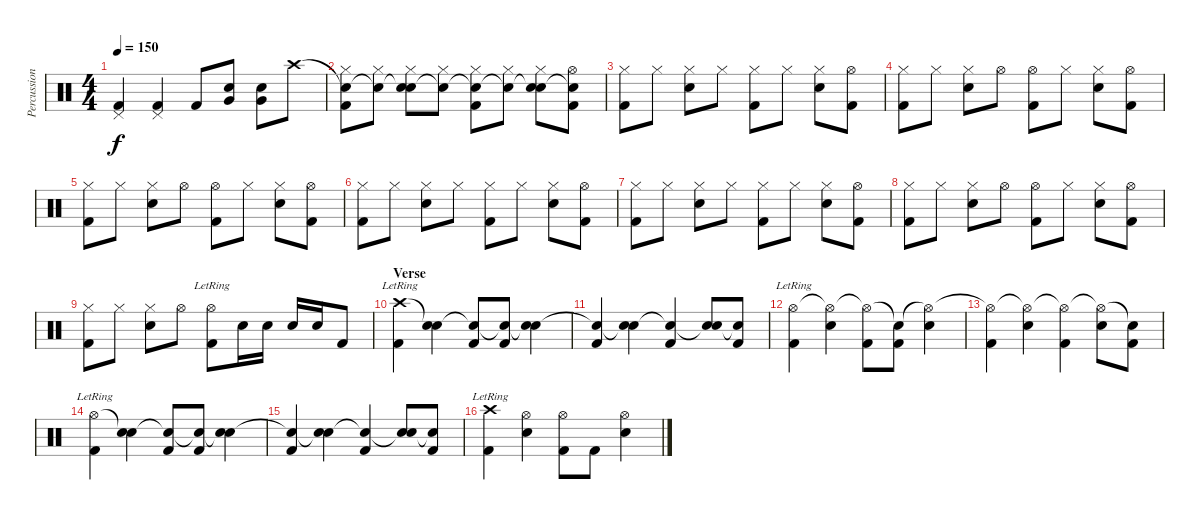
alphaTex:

\track ("Percussion" "Percussion") {instrument percussion}
\staff {score}
\articulation defaults
\ts (4 4)
\tempo 150
\clef neutral
\ks c
("Pedal Hi-Hat (hit)" "Kick (hit) 2").4{dy f} ("Pedal Hi-Hat (hit)" "Kick (hit) 2").4 "Kick (hit) 2".8 ("Very Low Tom (hit)" "Snare (hit) 2").8 ("Very Low Tom (hit)" "Snare (hit) 2").8 "Crash high (hit)".8 |
("Snare (hit)"{t} "Hi-Hat (closed)" "Kick (hit) 2").8 ("Snare (hit)"{t} "Hi-Hat (closed)").8 ("Snare (hit)"{t} "Hi-Hat (closed)" "Snare (hit) 2").8 ("Snare (hit)"{t} "Hi-Hat (closed)").8 ("Snare (hit)"{t} "Hi-Hat (closed)" "Kick (hit) 2").8 ("Snare (hit)"{t} "Hi-Hat (closed)").8 ("Snare (hit)"{t} "Hi-Hat (closed)" "Snare (hit) 2").8 ("Snare (hit)"{t} "Hi-Hat (open)" "Kick (hit) 2").8 |
("Hi-Hat (closed)" "Kick (hit) 2").8 "Hi-Hat (closed)".8 ("Hi-Hat (closed)" "Snare (hit) 2").8 "Hi-Hat (closed)".8 ("Hi-Hat (closed)" "Kick (hit) 2").8 "Hi-Hat (closed)".8 ("Hi-Hat (closed)" "Snare (hit) 2").8 ("Hi-Hat (open)" "Kick (hit) 2").8 |
("Hi-Hat (closed)" "Kick (hit) 2").8 "Hi-Hat (closed)".8 ("Hi-Hat (closed)" "Snare (hit) 2").8 "Hi-Hat (open)".8 ("Hi-Hat (open)" "Kick (hit) 2").8 "Hi-Hat (closed)".8 ("Hi-Hat (closed)" "Snare (hit) 2").8 ("Hi-Hat (open)" "Kick (hit) 2").8 |
("Hi-Hat (closed)" "Kick (hit) 2").8 "Hi-Hat (closed)".8 ("Hi-Hat (closed)" "Snare (hit) 2").8 "Hi-Hat (open)".8 ("Hi-Hat (open)" "Kick (hit) 2").8 "Hi-Hat (closed)".8 ("Hi-Hat (closed)" "Snare (hit) 2").8 ("Hi-Hat (open)" "Kick (hit) 2").8 |
("Hi-Hat (closed)" "Kick (hit) 2").8 "Hi-Hat (closed)".8 ("Hi-Hat (closed)" "Snare (hit) 2").8 "Hi-Hat (closed)".8 ("Hi-Hat (closed)" "Kick (hit) 2").8 "Hi-Hat (closed)".8 ("Hi-Hat (closed)" "Snare (hit) 2").8 ("Hi-Hat (open)" "Kick (hit) 2").8 |
("Hi-Hat (closed)" "Kick (hit) 2").8 "Hi-Hat (closed)".8 ("Hi-Hat (closed)" "Snare (hit) 2").8 "Hi-Hat (closed)".8 ("Hi-Hat (closed)" "Kick (hit) 2").8 "Hi-Hat (closed)".8 ("Hi-Hat (closed)" "Snare (hit) 2").8 ("Hi-Hat (open)" "Kick (hit) 2").8 |
("Hi-Hat (closed)" "Kick (hit) 2").8 "Hi-Hat (closed)".8 ("Hi-Hat (closed)" "Snare (hit) 2").8 "Hi-Hat (open)".8 ("Hi-Hat (open)" "Kick (hit) 2").8 "Hi-Hat (closed)".8 ("Hi-Hat (closed)" "Snare (hit) 2").8 ("Hi-Hat (open)" "Kick (hit) 2").8 |
("Hi-Hat (closed)" "Kick (hit) 2").8 "Hi-Hat (closed)".8 ("Hi-Hat (closed)" "Snare (hit) 2").8 "Hi-Hat (open)".8 ("Hi-Hat (open)"{lr} "Kick (hit) 2").8 "Snare (hit) 2".16 "Snare (hit) 2".16 "Snare (hit) 2".16 "Snare (hit) 2".16 "Kick (hit) 2".8 |
\section ("" "Verse")
("Crash high (hit)"{lr} "Kick (hit) 2").4 ("Snare (hit)"{t} "Snare (hit) 2").4 ("Snare (hit)"{t} "Kick (hit) 2").8 ("Snare (hit)"{t} "Kick (hit) 2").8 ("Snare (hit)"{t} "Snare (hit) 2").4 |
("Snare (hit)"{t} "Kick (hit) 2").4 ("Snare (hit)"{t} "Snare (hit) 2").4 ("Snare (hit)"{t} "Kick (hit) 2").4 ("Snare (hit)"{t} "Snare (hit) 2").8 ("Snare (hit)"{t} "Kick (hit) 2").8 |
("Hi-Hat (open)"{lr} "Kick (hit) 2").4 ("Hi-Hat (open)"{t} "Snare (hit) 2").4 ("Hi-Hat (open)"{t} "Kick (hit) 2").8 ("Snare (hit)"{t} "Kick (hit) 2").8 ("Hi-Hat (open)"{t} "Snare (hit) 2").4 |
("Hi-Hat (open)"{t} "Kick (hit) 2").4 ("Hi-Hat (open)"{t} "Snare (hit) 2").4 ("Hi-Hat (open)"{t} "Kick (hit) 2").4 ("Hi-Hat (open)"{t} "Snare (hit) 2").8 ("Snare (hit)"{t} "Kick (hit) 2").8 |
("Hi-Hat (open)"{lr} "Kick (hit) 2").4 ("Snare (hit)"{t} "Snare (hit) 2").4 ("Snare (hit)"{t} "Kick (hit) 2").8 ("Snare (hit)"{t} "Kick (hit) 2").8 ("Snare (hit)"{t} "Snare (hit) 2").4 |
("Snare (hit)"{t} "Kick (hit) 2").4 ("Snare (hit)"{t} "Snare (hit) 2").4 ("Snare (hit)"{t} "Kick (hit) 2").4 ("Snare (hit)"{t} "Snare (hit) 2").8 ("Snare (hit)"{t} "Kick (hit) 2").8 |
("Crash high (hit)"{lr} "Kick (hit) 2").4 ("Hi-Hat (open)" "Snare (hit) 2").4 ("Hi-Hat (open)" "Kick (hit) 2").8 "Kick (hit) 2".8 ("Hi-Hat (open)" "Snare (hit) 2").4
